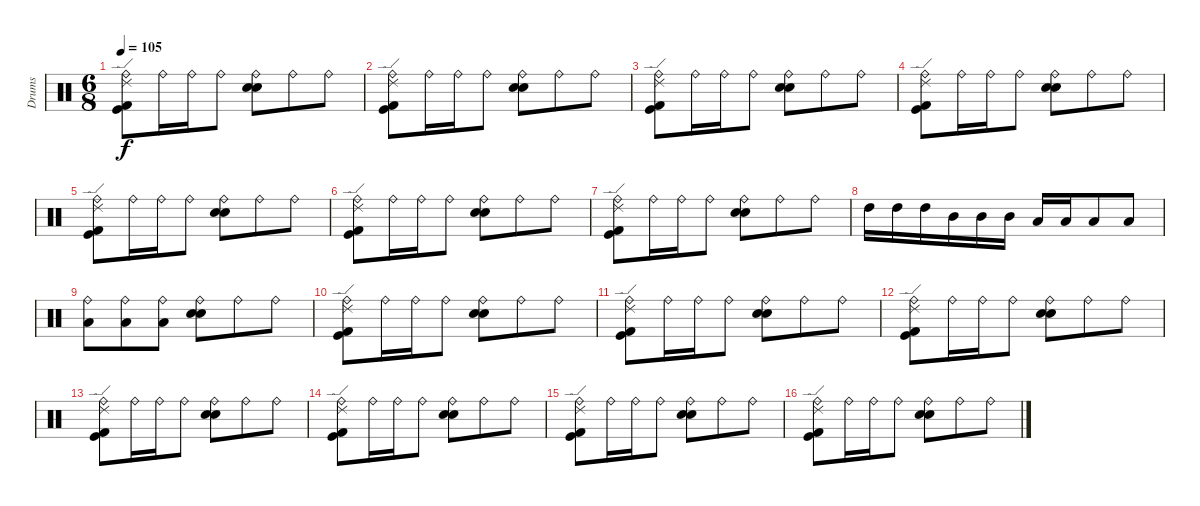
\track ("Drums" "Drums") {instrument percussion}
\staff {score}
\articulation defaults
\ts (6 8)
\tempo 105
\clef neutral
\ks c
("Ride (bell)" "Ride (edge) 2" "Kick (hit) 2" "Kick (hit)").8{dy f} "Ride (bell)".16 "Ride (bell)".16 "Ride (bell)".8 ("Ride (bell)" "Snare (hit) 2" "Electric Snare (hit)").8 "Ride (bell)".8 "Ride (bell)".8 |
("Ride (bell)" "Ride (edge) 2" "Kick (hit) 2" "Kick (hit)").8 "Ride (bell)".16 "Ride (bell)".16 "Ride (bell)".8 ("Ride (bell)" "Snare (hit) 2" "Electric Snare (hit)").8 "Ride (bell)".8 "Ride (bell)".8 |
("Ride (bell)" "Ride (edge) 2" "Kick (hit) 2" "Kick (hit)").8 "Ride (bell)".16 "Ride (bell)".16 "Ride (bell)".8 ("Ride (bell)" "Snare (hit) 2" "Electric Snare (hit)").8 "Ride (bell)".8 "Ride (bell)".8 |
("Ride (bell)" "Ride (edge) 2" "Kick (hit) 2" "Kick (hit)").8 "Ride (bell)".16 "Ride (bell)".16 "Ride (bell)".8 ("Ride (bell)" "Snare (hit) 2" "Electric Snare (hit)").8 "Ride (bell)".8 "Ride (bell)".8 |
("Ride (bell)" "Ride (edge) 2" "Kick (hit) 2" "Kick (hit)").8 "Ride (bell)".16 "Ride (bell)".16 "Ride (bell)".8 ("Ride (bell)" "Snare (hit) 2" "Electric Snare (hit)").8 "Ride (bell)".8 "Ride (bell)".8 |
("Ride (bell)" "Ride (edge) 2" "Kick (hit) 2" "Kick (hit)").8 "Ride (bell)".16 "Ride (bell)".16 "Ride (bell)".8 ("Ride (bell)" "Snare (hit) 2" "Electric Snare (hit)").8 "Ride (bell)".8 "Ride (bell)".8 |
("Ride (bell)" "Ride (edge) 2" "Kick (hit) 2" "Kick (hit)").8 "Ride (bell)".16 "Ride (bell)".16 "Ride (bell)".8 ("Ride (bell)" "Snare (hit) 2" "Electric Snare (hit)").8 "Ride (bell)".8 "Ride (bell)".8 |
"High Tom (hit)".16{volume 16 balance 0} "High Tom (hit)".16 "High Tom (hit)".16 "Mid Tom (hit)".16 "Mid Tom (hit)".16 "Mid Tom (hit)".16 "Low Tom (hit)".16{balance 16} "Low Tom (hit)".16 "Low Tom (hit)".8 "Low Tom (hit)".8 |
("Ride (bell)" "Low Floor Tom (hit)").8{volume 13 balance 8} ("Ride (bell)" "Low Floor Tom (hit)").8 ("Ride (bell)" "Low Floor Tom (hit)").8 ("Ride (bell)" "Snare (hit) 2" "Electric Snare (hit)").8 "Ride (bell)".8 "Ride (bell)".8 |
("Ride (bell)" "Ride (edge) 2" "Kick (hit) 2" "Kick (hit)").8 "Ride (bell)".16 "Ride (bell)".16 "Ride (bell)".8 ("Ride (bell)" "Snare (hit) 2" "Electric Snare (hit)").8 "Ride (bell)".8 "Ride (bell)".8 |
("Ride (bell)" "Ride (edge) 2" "Kick (hit) 2" "Kick (hit)").8 "Ride (bell)".16 "Ride (bell)".16 "Ride (bell)".8 ("Ride (bell)" "Snare (hit) 2" "Electric Snare (hit)").8 "Ride (bell)".8 "Ride (bell)".8 |
("Ride (bell)" "Ride (edge) 2" "Kick (hit) 2" "Kick (hit)").8 "Ride (bell)".16 "Ride (bell)".16 "Ride (bell)".8 ("Ride (bell)" "Snare (hit) 2" "Electric Snare (hit)").8 "Ride (bell)".8 "Ride (bell)".8 |
("Ride (bell)" "Ride (edge) 2" "Kick (hit) 2" "Kick (hit)").8 "Ride (bell)".16 "Ride (bell)".16 "Ride (bell)".8 ("Ride (bell)" "Snare (hit) 2" "Electric Snare (hit)").8 "Ride (bell)".8 "Ride (bell)".8 |
("Ride (bell)" "Ride (edge) 2" "Kick (hit) 2" "Kick (hit)").8 "Ride (bell)".16 "Ride (bell)".16 "Ride (bell)".8 ("Ride (bell)" "Snare (hit) 2" "Electric Snare (hit)").8 "Ride (bell)".8 "Ride (bell)".8 |
("Ride (bell)" "Ride (edge) 2" "Kick (hit) 2" "Kick (hit)").8 "Ride (bell)".16 "Ride (bell)".16 "Ride (bell)".8 ("Ride (bell)" "Snare (hit) 2" "Electric Snare (hit)").8 "Ride (bell)".8 "Ride (bell)".8 |
("Ride (bell)" "Ride (edge) 2" "Kick (hit) 2" "Kick (hit)").8 "Ride (bell)".16 "Ride (bell)".16 "Ride (bell)".8 ("Ride (bell)" "Snare (hit) 2" "Electric Snare (hit)").8 "Ride (bell)".8 "Ride (bell)".8
